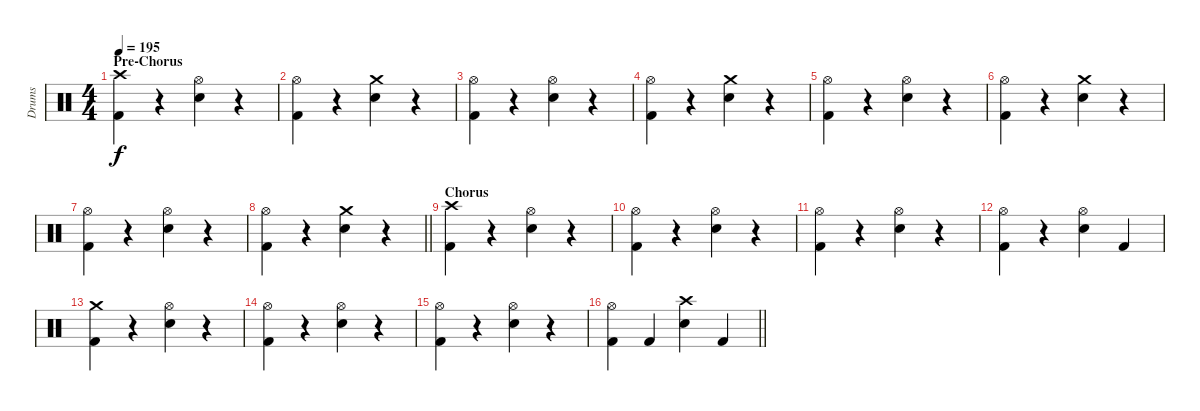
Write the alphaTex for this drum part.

\track ("Drums" "Drums") {instrument percussion}
\staff {score}
\articulation defaults
\ts (4 4)
\section ("" "Pre-Chorus")
\tempo 195
\clef neutral
\ks c
("Crash high (hit)" "Kick (hit) 2").4{dy f} r.4 ("Hi-Hat (open)" "Electric Snare (hit)").4 r.4 |
("Hi-Hat (open)" "Kick (hit) 2").4 r.4 ("Crash medium (hit)" "Electric Snare (hit)").4 r.4 |
("Hi-Hat (open)" "Kick (hit) 2").4 r.4 ("Hi-Hat (open)" "Electric Snare (hit)").4 r.4 |
("Hi-Hat (open)" "Kick (hit) 2").4 r.4 ("Crash medium (hit)" "Electric Snare (hit)").4 r.4 |
("Hi-Hat (open)" "Kick (hit) 2").4 r.4 ("Hi-Hat (open)" "Electric Snare (hit)").4 r.4 |
("Hi-Hat (open)" "Kick (hit) 2").4 r.4 ("Crash medium (hit)" "Electric Snare (hit)").4 r.4 |
("Hi-Hat (open)" "Kick (hit) 2").4 r.4 ("Hi-Hat (open)" "Electric Snare (hit)").4 r.4 |
\barLineRight lightlight
("Hi-Hat (open)" "Kick (hit) 2").4 r.4 ("Crash medium (hit)" "Electric Snare (hit)").4 r.4 |
\section ("" "Chorus")
("Crash high (hit)" "Kick (hit) 2").4 r.4 ("Hi-Hat (open)" "Electric Snare (hit)").4 r.4 |
("Hi-Hat (open)" "Kick (hit) 2").4 r.4 ("Hi-Hat (open)" "Electric Snare (hit)").4 r.4 |
("Hi-Hat (open)" "Kick (hit) 2").4 r.4 ("Hi-Hat (open)" "Electric Snare (hit)").4 r.4 |
("Hi-Hat (open)" "Kick (hit) 2").4 r.4 ("Hi-Hat (open)" "Electric Snare (hit)").4 "Kick (hit) 2".4 |
("Crash medium (hit)" "Kick (hit) 2").4 r.4 ("Hi-Hat (open)" "Electric Snare (hit)").4 r.4 |
("Hi-Hat (open)" "Kick (hit) 2").4 r.4 ("Hi-Hat (open)" "Electric Snare (hit)").4 r.4 |
("Hi-Hat (open)" "Kick (hit) 2").4 r.4 ("Hi-Hat (open)" "Electric Snare (hit)").4 r.4 |
\barLineRight lightlight
("Hi-Hat (open)" "Kick (hit) 2").4 "Kick (hit) 2".4 ("Crash high (hit)" "Electric Snare (hit)").4 "Kick (hit) 2".4
